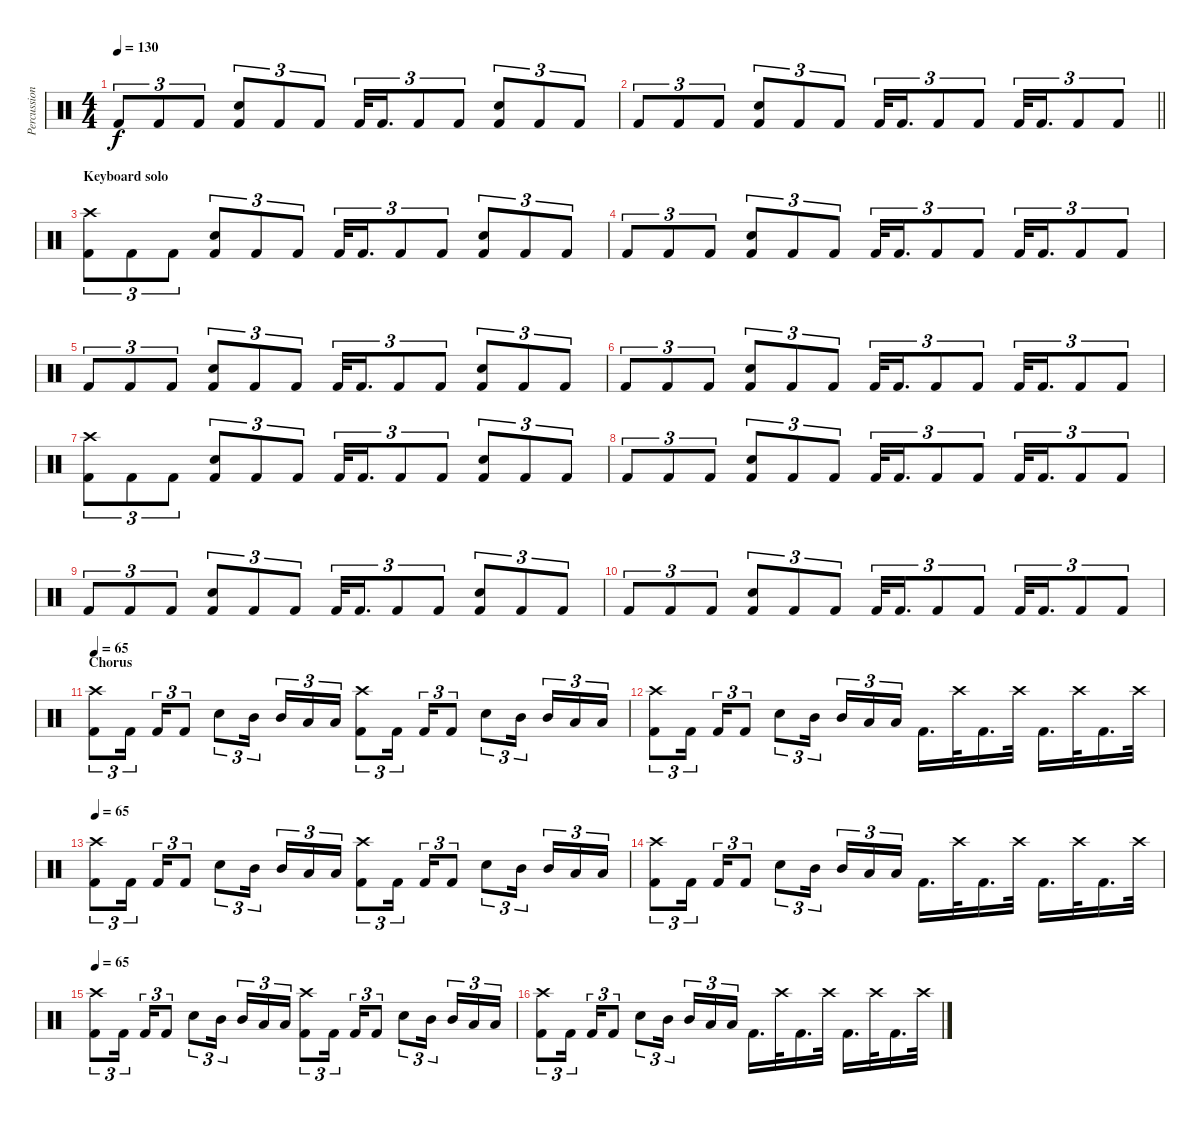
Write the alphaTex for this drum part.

\track ("Percussions" "Percussion") {instrument percussion}
\staff {score}
\articulation defaults
\ts (4 4)
\tempo 130
\clef neutral
\ks c "Kick (hit) 2".8{tu (3 2) dy f} "Kick (hit) 2".8{tu (3 2)} "Kick (hit) 2".8{tu (3 2)}
("Electric Snare (hit)" "Kick (hit) 2").8{tu (3 2)} "Kick (hit) 2".8{tu (3 2)} "Kick (hit) 2".8{tu (3 2)} "Kick (hit) 2".32{tu (3 2)} "Kick (hit) 2".16{d tu (3 2)} "Kick (hit) 2".8{tu (3 2)} "Kick (hit) 2".8{tu (3 2)} ("Electric Snare (hit)" "Kick (hit) 2").8{tu (3 2)} "Kick (hit) 2".8{tu (3 2)} "Kick (hit) 2".8{tu (3 2)} |
\barLineRight lightlight "Kick (hit) 2".8{tu (3 2)} "Kick (hit) 2".8{tu (3 2)} "Kick (hit) 2".8{tu (3 2)}
("Electric Snare (hit)" "Kick (hit) 2").8{tu (3 2)} "Kick (hit) 2".8{tu (3 2)} "Kick (hit) 2".8{tu (3 2)} "Kick (hit) 2".32{tu (3 2)} "Kick (hit) 2".16{d tu (3 2)} "Kick (hit) 2".8{tu (3 2)} "Kick (hit) 2".8{tu (3 2)} "Kick (hit) 2".32{tu (3 2)} "Kick (hit) 2".16{d tu (3 2)} "Kick (hit) 2".8{tu (3 2)} "Kick (hit) 2".8{tu (3 2)} |
\section ("" "Keyboard solo ")
("Crash high (hit)" "Kick (hit) 2").8{tu (3 2)} "Kick (hit) 2".8{tu (3 2)} "Kick (hit) 2".8{tu (3 2)} ("Electric Snare (hit)" "Kick (hit) 2").8{tu (3 2)} "Kick (hit) 2".8{tu (3 2)} "Kick (hit) 2".8{tu (3 2)} "Kick (hit) 2".32{tu (3 2)} "Kick (hit) 2".16{d tu (3 2)} "Kick (hit) 2".8{tu (3 2)} "Kick (hit) 2".8{tu (3 2)} ("Electric Snare (hit)" "Kick (hit) 2").8{tu (3 2)} "Kick (hit) 2".8{tu (3 2)} "Kick (hit) 2".8{tu (3 2)} |
"Kick (hit) 2".8{tu (3 2)} "Kick (hit) 2".8{tu (3 2)} "Kick (hit) 2".8{tu (3 2)} ("Electric Snare (hit)" "Kick (hit) 2").8{tu (3 2)} "Kick (hit) 2".8{tu (3 2)} "Kick (hit) 2".8{tu (3 2)} "Kick (hit) 2".32{tu (3 2)} "Kick (hit) 2".16{d tu (3 2)} "Kick (hit) 2".8{tu (3 2)} "Kick (hit) 2".8{tu (3 2)} "Kick (hit) 2".32{tu (3 2)} "Kick (hit) 2".16{d tu (3 2)} "Kick (hit) 2".8{tu (3 2)} "Kick (hit) 2".8{tu (3 2)} |
"Kick (hit) 2".8{tu (3 2)} "Kick (hit) 2".8{tu (3 2)} "Kick (hit) 2".8{tu (3 2)} ("Electric Snare (hit)" "Kick (hit) 2").8{tu (3 2)} "Kick (hit) 2".8{tu (3 2)} "Kick (hit) 2".8{tu (3 2)} "Kick (hit) 2".32{tu (3 2)} "Kick (hit) 2".16{d tu (3 2)} "Kick (hit) 2".8{tu (3 2)} "Kick (hit) 2".8{tu (3 2)} ("Electric Snare (hit)" "Kick (hit) 2").8{tu (3 2)} "Kick (hit) 2".8{tu (3 2)} "Kick (hit) 2".8{tu (3 2)} |
"Kick (hit) 2".8{tu (3 2)} "Kick (hit) 2".8{tu (3 2)} "Kick (hit) 2".8{tu (3 2)} ("Electric Snare (hit)" "Kick (hit) 2").8{tu (3 2)} "Kick (hit) 2".8{tu (3 2)} "Kick (hit) 2".8{tu (3 2)} "Kick (hit) 2".32{tu (3 2)} "Kick (hit) 2".16{d tu (3 2)} "Kick (hit) 2".8{tu (3 2)} "Kick (hit) 2".8{tu (3 2)} "Kick (hit) 2".32{tu (3 2)} "Kick (hit) 2".16{d tu (3 2)} "Kick (hit) 2".8{tu (3 2)} "Kick (hit) 2".8{tu (3 2)} |
("Crash high (hit)" "Kick (hit) 2").8{tu (3 2)} "Kick (hit) 2".8{tu (3 2)} "Kick (hit) 2".8{tu (3 2)} ("Electric Snare (hit)" "Kick (hit) 2").8{tu (3 2)} "Kick (hit) 2".8{tu (3 2)} "Kick (hit) 2".8{tu (3 2)} "Kick (hit) 2".32{tu (3 2)} "Kick (hit) 2".16{d tu (3 2)} "Kick (hit) 2".8{tu (3 2)} "Kick (hit) 2".8{tu (3 2)} ("Electric Snare (hit)" "Kick (hit) 2").8{tu (3 2)} "Kick (hit) 2".8{tu (3 2)} "Kick (hit) 2".8{tu (3 2)} |
"Kick (hit) 2".8{tu (3 2)} "Kick (hit) 2".8{tu (3 2)} "Kick (hit) 2".8{tu (3 2)} ("Electric Snare (hit)" "Kick (hit) 2").8{tu (3 2)} "Kick (hit) 2".8{tu (3 2)} "Kick (hit) 2".8{tu (3 2)} "Kick (hit) 2".32{tu (3 2)} "Kick (hit) 2".16{d tu (3 2)} "Kick (hit) 2".8{tu (3 2)} "Kick (hit) 2".8{tu (3 2)} "Kick (hit) 2".32{tu (3 2)} "Kick (hit) 2".16{d tu (3 2)} "Kick (hit) 2".8{tu (3 2)} "Kick (hit) 2".8{tu (3 2)} |
"Kick (hit) 2".8{tu (3 2)} "Kick (hit) 2".8{tu (3 2)} "Kick (hit) 2".8{tu (3 2)} ("Electric Snare (hit)" "Kick (hit) 2").8{tu (3 2)} "Kick (hit) 2".8{tu (3 2)} "Kick (hit) 2".8{tu (3 2)} "Kick (hit) 2".32{tu (3 2)} "Kick (hit) 2".16{d tu (3 2)} "Kick (hit) 2".8{tu (3 2)} "Kick (hit) 2".8{tu (3 2)} ("Electric Snare (hit)" "Kick (hit) 2").8{tu (3 2)} "Kick (hit) 2".8{tu (3 2)} "Kick (hit) 2".8{tu (3 2)} |
"Kick (hit) 2".8{tu (3 2)} "Kick (hit) 2".8{tu (3 2)} "Kick (hit) 2".8{tu (3 2)} ("Electric Snare (hit)" "Kick (hit) 2").8{tu (3 2)} "Kick (hit) 2".8{tu (3 2)} "Kick (hit) 2".8{tu (3 2)} "Kick (hit) 2".32{tu (3 2)} "Kick (hit) 2".16{d tu (3 2)} "Kick (hit) 2".8{tu (3 2)} "Kick (hit) 2".8{tu (3 2)} "Kick (hit) 2".32{tu (3 2)} "Kick (hit) 2".16{d tu (3 2)} "Kick (hit) 2".8{tu (3 2)} "Kick (hit) 2".8{tu (3 2)} |
\section ("" "Chorus")
\tempo 65
("Crash high (hit)" "Kick (hit) 2").8{tu (3 2)} "Kick (hit) 2".16{tu (3 2) beam splitsecondary} "Kick (hit) 2".16{tu (3 2)} "Kick (hit) 2".8{tu (3 2)} "Electric Snare (hit)".8{tu (3 2)} "Mid Tom (hit)".16{tu (3 2) beam splitsecondary} "Mid Tom (hit)".16{tu (3 2)} "Low Tom (hit)".16{tu (3 2)} "Low Tom (hit)".16{tu (3 2)} ("Crash high (hit)" "Kick (hit) 2").8{tu (3 2)} "Kick (hit) 2".16{tu (3 2) beam splitsecondary} "Kick (hit) 2".16{tu (3 2)} "Kick (hit) 2".8{tu (3 2)} "Electric Snare (hit)".8{tu (3 2)} "Mid Tom (hit)".16{tu (3 2) beam splitsecondary} "Mid Tom (hit)".16{tu (3 2)} "Low Tom (hit)".16{tu (3 2)} "Low Tom (hit)".16{tu (3 2)} |
("Crash high (hit)" "Kick (hit) 2").8{tu (3 2)} "Kick (hit) 2".16{tu (3 2) beam splitsecondary} "Kick (hit) 2".16{tu (3 2)} "Kick (hit) 2".8{tu (3 2)} "Electric Snare (hit)".8{tu (3 2)} "Mid Tom (hit)".16{tu (3 2) beam splitsecondary} "Mid Tom (hit)".16{tu (3 2)} "Low Tom (hit)".16{tu (3 2)} "Low Tom (hit)".16{tu (3 2)} "Kick (hit) 2".16{d} "Crash high (hit)".32 "Kick (hit) 2".16{d} "Crash high (hit)".32 "Kick (hit) 2".16{d} "Crash high (hit)".32 "Kick (hit) 2".16{d} "Crash high (hit)".32 |
\tempo 65
("Crash high (hit)" "Kick (hit) 2").8{tu (3 2)} "Kick (hit) 2".16{tu (3 2) beam splitsecondary} "Kick (hit) 2".16{tu (3 2)} "Kick (hit) 2".8{tu (3 2)} "Electric Snare (hit)".8{tu (3 2)} "Mid Tom (hit)".16{tu (3 2) beam splitsecondary} "Mid Tom (hit)".16{tu (3 2)} "Low Tom (hit)".16{tu (3 2)} "Low Tom (hit)".16{tu (3 2)} ("Crash high (hit)" "Kick (hit) 2").8{tu (3 2)} "Kick (hit) 2".16{tu (3 2) beam splitsecondary} "Kick (hit) 2".16{tu (3 2)} "Kick (hit) 2".8{tu (3 2)} "Electric Snare (hit)".8{tu (3 2)} "Mid Tom (hit)".16{tu (3 2) beam splitsecondary} "Mid Tom (hit)".16{tu (3 2)} "Low Tom (hit)".16{tu (3 2)} "Low Tom (hit)".16{tu (3 2)} |
("Crash high (hit)" "Kick (hit) 2").8{tu (3 2)} "Kick (hit) 2".16{tu (3 2) beam splitsecondary} "Kick (hit) 2".16{tu (3 2)} "Kick (hit) 2".8{tu (3 2)} "Electric Snare (hit)".8{tu (3 2)} "Mid Tom (hit)".16{tu (3 2) beam splitsecondary} "Mid Tom (hit)".16{tu (3 2)} "Low Tom (hit)".16{tu (3 2)} "Low Tom (hit)".16{tu (3 2)} "Kick (hit) 2".16{d} "Crash high (hit)".32 "Kick (hit) 2".16{d} "Crash high (hit)".32 "Kick (hit) 2".16{d} "Crash high (hit)".32 "Kick (hit) 2".16{d} "Crash high (hit)".32 |
\tempo 65
("Crash high (hit)" "Kick (hit) 2").8{tu (3 2)} "Kick (hit) 2".16{tu (3 2) beam splitsecondary} "Kick (hit) 2".16{tu (3 2)} "Kick (hit) 2".8{tu (3 2)} "Electric Snare (hit)".8{tu (3 2)} "Mid Tom (hit)".16{tu (3 2) beam splitsecondary} "Mid Tom (hit)".16{tu (3 2)} "Low Tom (hit)".16{tu (3 2)} "Low Tom (hit)".16{tu (3 2)} ("Crash high (hit)" "Kick (hit) 2").8{tu (3 2)} "Kick (hit) 2".16{tu (3 2) beam splitsecondary} "Kick (hit) 2".16{tu (3 2)} "Kick (hit) 2".8{tu (3 2)} "Electric Snare (hit)".8{tu (3 2)} "Mid Tom (hit)".16{tu (3 2) beam splitsecondary} "Mid Tom (hit)".16{tu (3 2)} "Low Tom (hit)".16{tu (3 2)} "Low Tom (hit)".16{tu (3 2)} |
("Crash high (hit)" "Kick (hit) 2").8{tu (3 2)} "Kick (hit) 2".16{tu (3 2) beam splitsecondary} "Kick (hit) 2".16{tu (3 2)} "Kick (hit) 2".8{tu (3 2)} "Electric Snare (hit)".8{tu (3 2)} "Mid Tom (hit)".16{tu (3 2) beam splitsecondary} "Mid Tom (hit)".16{tu (3 2)} "Low Tom (hit)".16{tu (3 2)} "Low Tom (hit)".16{tu (3 2)} "Kick (hit) 2".16{d} "Crash high (hit)".32 "Kick (hit) 2".16{d} "Crash high (hit)".32 "Kick (hit) 2".16{d} "Crash high (hit)".32 "Kick (hit) 2".16{d} "Crash high (hit)".32
